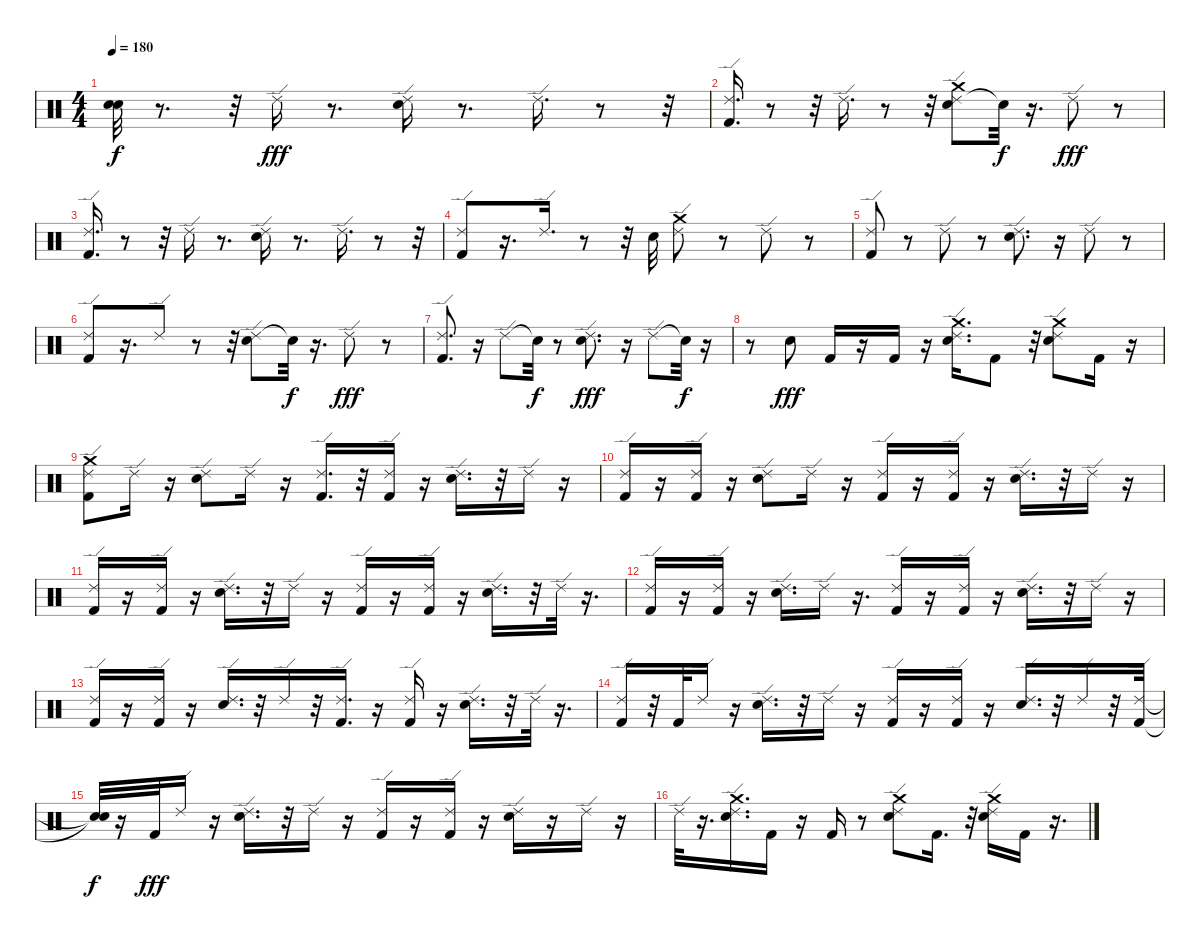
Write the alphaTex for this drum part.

\track "" {instrument percussion}
\staff {score}
\articulation defaults
\ts (4 4)
\tempo 180
\clef neutral
\ks c
("Snare (hit)"{t} "Snare (hit)"{t}).32{dy f} r.8{d} r.32 "Ride (edge) 2".16{dy fff} r.8{d} ("Ride (edge) 2" "Snare (hit) 2").16 r.8{d} "Ride (edge) 2".16{d} r.8 r.32 |
("Kick (hit) 2" "Ride (edge) 2").16{d} r.8 r.32 "Ride (edge) 2".16{d} r.8 r.32 ("Ride (edge) 2" "Crash medium (hit)" "Snare (hit) 2").8 "Snare (hit)"{t}.32{dy f} r.16{d} "Ride (edge) 2".8{dy fff} r.8 |
("Kick (hit) 2" "Ride (edge) 2").16{d} r.8 r.32 "Ride (edge) 2".16 r.8{d} ("Ride (edge) 2" "Snare (hit) 2").16 r.8{d} "Ride (edge) 2".16{d} r.8 r.32 |
("Kick (hit) 2" "Ride (edge) 2").8 r.16{d} "Ride (edge) 2".16{d} r.8 r.32 "Snare (hit) 2".32 ("Ride (edge) 2" "Crash medium (hit)").8 r.8 "Ride (edge) 2".8 r.8 |
("Kick (hit) 2" "Ride (edge) 2").8 r.8 "Ride (edge) 2".8 r.8 ("Ride (edge) 2" "Snare (hit) 2").8{d} r.16 "Ride (edge) 2".8 r.8 |
("Kick (hit) 2" "Ride (edge) 2").8 r.16{d} "Ride (edge) 2".8 r.8 r.32 ("Ride (edge) 2" "Snare (hit) 2").8 "Snare (hit)"{t}.32{dy f} r.16{d} "Ride (edge) 2".8{dy fff} r.8 |
("Kick (hit) 2" "Ride (edge) 2").8{d} r.16 "Ride (edge) 2".8 "Snare (hit)"{t}.32{dy f} r.8 ("Ride (edge) 2" "Snare (hit) 2").8{d dy fff} r.16 "Ride (edge) 2".8 "Snare (hit)"{t}.32{dy f} r.16 |
r.8 "Snare (hit) 2".8{dy fff} "Kick (hit) 2".16 r.16 "Kick (hit) 2".16 r.16 ("Ride (edge) 2" "Crash medium (hit)" "Snare (hit) 2").16{d} "Kick (hit) 2".8 r.32 ("Ride (edge) 2" "Crash medium (hit)" "Snare (hit) 2").8 "Kick (hit) 2".16 r.16 |
("Kick (hit) 2" "Ride (edge) 2" "Crash medium (hit)").8 "Ride (edge) 2".16 r.16 ("Ride (edge) 2" "Snare (hit) 2").8 "Ride (edge) 2".16 r.16 ("Kick (hit) 2" "Ride (edge) 2").16{d} r.32 ("Kick (hit) 2" "Ride (edge) 2").16 r.16 ("Ride (edge) 2" "Snare (hit) 2").16{d} r.32 "Ride (edge) 2".16 r.16 |
("Kick (hit) 2" "Ride (edge) 2").16 r.16 ("Kick (hit) 2" "Ride (edge) 2").16 r.16 ("Snare (hit) 2" "Ride (edge) 2").8 "Ride (edge) 2".16 r.16 ("Kick (hit) 2" "Ride (edge) 2").16 r.16 ("Kick (hit) 2" "Ride (edge) 2").16 r.16 ("Ride (edge) 2" "Snare (hit) 2").16{d} r.32 "Ride (edge) 2".16 r.16 |
("Kick (hit) 2" "Ride (edge) 2").16 r.16 ("Kick (hit) 2" "Ride (edge) 2").16 r.16 ("Ride (edge) 2" "Snare (hit) 2").16{d} r.32 "Ride (edge) 2".16 r.16 ("Kick (hit) 2" "Ride (edge) 2").16 r.16 ("Kick (hit) 2" "Ride (edge) 2").16 r.16 ("Ride (edge) 2" "Snare (hit) 2").16{d} r.32 "Ride (edge) 2".32 r.16{d} |
("Kick (hit) 2" "Ride (edge) 2").16 r.16 ("Kick (hit) 2" "Ride (edge) 2").16 r.16 ("Ride (edge) 2" "Snare (hit) 2").16{d} "Ride (edge) 2".16 r.16{d} ("Kick (hit) 2" "Ride (edge) 2").16 r.16 ("Kick (hit) 2" "Ride (edge) 2").16 r.16 ("Ride (edge) 2" "Snare (hit) 2").16{d} r.32 "Ride (edge) 2".16 r.16 |
("Kick (hit) 2" "Ride (edge) 2").16 r.16 ("Kick (hit) 2" "Ride (edge) 2").16 r.16 ("Ride (edge) 2" "Snare (hit) 2").16{d} r.32 "Ride (edge) 2".16 r.32 ("Kick (hit) 2" "Ride (edge) 2").16{d} r.16 ("Kick (hit) 2" "Ride (edge) 2").16 r.16 ("Ride (edge) 2" "Snare (hit) 2").16{d} r.32 "Ride (edge) 2".32 r.16{d} |
("Kick (hit) 2" "Ride (edge) 2").16 r.32 "Kick (hit) 2".32 "Ride (edge) 2".16 r.16 ("Ride (edge) 2" "Snare (hit) 2").16{d} r.32 "Ride (edge) 2".16 r.16 ("Kick (hit) 2" "Ride (edge) 2").16 r.16 ("Kick (hit) 2" "Ride (edge) 2").16 r.16 ("Ride (edge) 2" "Snare (hit) 2").16{d} r.32 "Ride (edge) 2".16 r.32 ("Kick (hit) 2" "Ride (edge) 2").32 |
("Snare (hit)"{t} "Snare (hit)"{t}).32{dy f} r.16 "Kick (hit) 2".32{dy fff} "Ride (edge) 2".16 r.16 ("Ride (edge) 2" "Snare (hit) 2").16{d} r.32 "Ride (edge) 2".16 r.16 ("Kick (hit) 2" "Ride (edge) 2").16 r.16 ("Kick (hit) 2" "Ride (edge) 2").16 r.16 ("Ride (edge) 2" "Snare (hit) 2").16 r.16 "Ride (edge) 2".16 r.16 |
"Ride (edge) 2".32 r.16{d} ("Ride (edge) 2" "Crash medium (hit)" "Snare (hit) 2").16{d} "Kick (hit) 2".16 r.16 "Kick (hit) 2".16 r.8 ("Ride (edge) 2" "Crash medium (hit)" "Snare (hit) 2").8 "Kick (hit) 2".16{d} r.32 ("Ride (edge) 2" "Crash medium (hit)" "Snare (hit) 2").16 "Kick (hit) 2".16 r.16{d}
